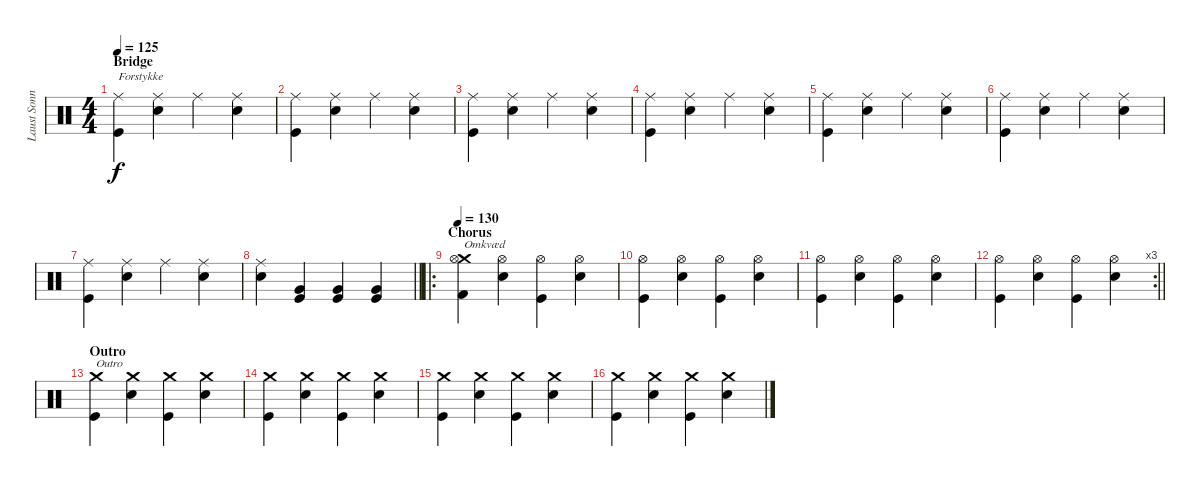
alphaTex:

\track ("Laust Sonne (Trommer)" "Laust Sonn") {instrument percussion}
\staff {score}
\articulation defaults
\ts (4 4)
\section ("" "Bridge")
\tempo 125
\clef neutral
\ks c
("Ride (middle)" "Kick (hit)").4{txt "Forstykke" dy f} ("Ride (middle)" "Snare (hit) 2").4 "Ride (middle)".4 ("Ride (middle)" "Snare (hit) 2").4 |
("Ride (middle)" "Kick (hit)").4 ("Ride (middle)" "Snare (hit) 2").4 "Ride (middle)".4 ("Ride (middle)" "Snare (hit) 2").4 |
("Ride (middle)" "Kick (hit)").4 ("Ride (middle)" "Snare (hit) 2").4 "Ride (middle)".4 ("Ride (middle)" "Snare (hit) 2").4 |
("Ride (middle)" "Kick (hit)").4 ("Ride (middle)" "Snare (hit) 2").4 "Ride (middle)".4 ("Ride (middle)" "Snare (hit) 2").4 |
("Ride (middle)" "Kick (hit)").4 ("Ride (middle)" "Snare (hit) 2").4 "Ride (middle)".4 ("Ride (middle)" "Snare (hit) 2").4 |
("Ride (middle)" "Kick (hit)").4 ("Ride (middle)" "Snare (hit) 2").4 "Ride (middle)".4 ("Ride (middle)" "Snare (hit) 2").4 |
("Ride (middle)" "Kick (hit)").4 ("Ride (middle)" "Snare (hit) 2").4 "Ride (middle)".4 ("Ride (middle)" "Snare (hit) 2").4 |
\barLineRight lightlight
("Ride (middle)" "Snare (hit) 2").4 ("Very Low Tom (hit)" "Kick (hit)").4 ("Very Low Tom (hit)" "Kick (hit)").4 ("Very Low Tom (hit)" "Kick (hit)").4 |
\ro
\section ("" "Chorus")
\tempo 130
("Crash medium (hit)" "Hi-Hat (open)" "Kick (hit) 2").4{txt "Omkvæd"} ("Hi-Hat (open)" "Snare (hit) 2").4 ("Hi-Hat (open)" "Kick (hit)").4 ("Hi-Hat (open)" "Snare (hit) 2").4 |
("Hi-Hat (open)" "Kick (hit)").4 ("Hi-Hat (open)" "Snare (hit) 2").4 ("Hi-Hat (open)" "Kick (hit)").4 ("Hi-Hat (open)" "Snare (hit) 2").4 |
("Hi-Hat (open)" "Kick (hit)").4 ("Hi-Hat (open)" "Snare (hit) 2").4 ("Hi-Hat (open)" "Kick (hit)").4 ("Hi-Hat (open)" "Snare (hit) 2").4 |
\rc 3
\barLineRight lightlight
("Hi-Hat (open)" "Kick (hit)").4 ("Hi-Hat (open)" "Snare (hit) 2").4 ("Hi-Hat (open)" "Kick (hit)").4 ("Hi-Hat (open)" "Snare (hit) 2").4 |
\section ("" "Outro")
("Crash medium (hit)" "Kick (hit)").4{txt "Outro"} ("Crash medium (hit)" "Snare (hit) 2").4 ("Crash medium (hit)" "Kick (hit)").4 ("Crash medium (hit)" "Snare (hit) 2").4 |
("Crash medium (hit)" "Kick (hit)").4 ("Crash medium (hit)" "Snare (hit) 2").4 ("Crash medium (hit)" "Kick (hit)").4 ("Crash medium (hit)" "Snare (hit) 2").4 |
("Crash medium (hit)" "Kick (hit)").4 ("Crash medium (hit)" "Snare (hit) 2").4 ("Crash medium (hit)" "Kick (hit)").4 ("Crash medium (hit)" "Snare (hit) 2").4 |
("Crash medium (hit)" "Kick (hit)").4 ("Crash medium (hit)" "Snare (hit) 2").4 ("Crash medium (hit)" "Kick (hit)").4 ("Crash medium (hit)" "Snare (hit) 2").4
